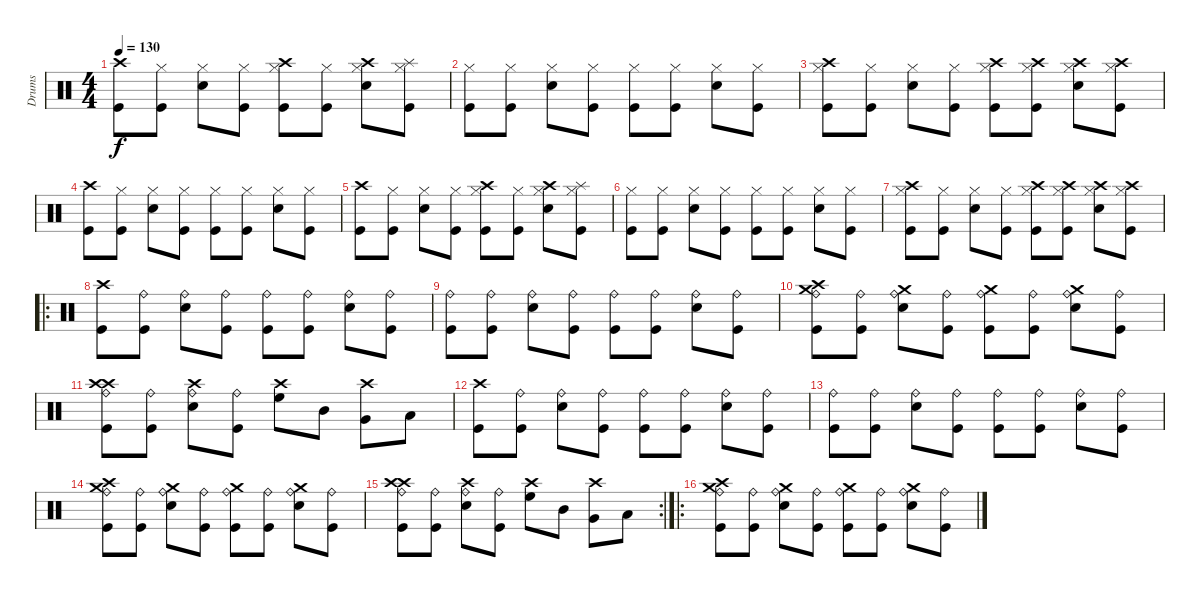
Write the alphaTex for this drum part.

\track ("Drums" "Drums") {instrument percussion}
\staff {score}
\articulation defaults
\ts (4 4)
\tempo 130
\clef neutral
\ks c
("Crash high (hit)" "Kick (hit)").8{dy f} ("Kick (hit)" "Hi-Hat (closed)").8 ("Electric Snare (hit)" "Hi-Hat (closed)").8 ("Kick (hit)" "Hi-Hat (closed)").8 ("Kick (hit)" "Hi-Hat (closed)" "Crash high (hit)").8 ("Kick (hit)" "Hi-Hat (closed)").8 ("Electric Snare (hit)" "Hi-Hat (closed)" "Crash high (hit)").8 ("Kick (hit)" "Hi-Hat (closed)" "Splash (hit)").8 |
("Kick (hit)" "Hi-Hat (closed)").8 ("Kick (hit)" "Hi-Hat (closed)").8 ("Electric Snare (hit)" "Hi-Hat (closed)").8 ("Kick (hit)" "Hi-Hat (closed)").8 ("Kick (hit)" "Hi-Hat (closed)").8 ("Kick (hit)" "Hi-Hat (closed)").8 ("Electric Snare (hit)" "Hi-Hat (closed)").8 ("Kick (hit)" "Hi-Hat (closed)").8 |
("Crash high (hit)" "Kick (hit)" "Hi-Hat (closed)").8 ("Kick (hit)" "Hi-Hat (closed)").8 ("Electric Snare (hit)" "Hi-Hat (closed)").8 ("Kick (hit)" "Hi-Hat (closed)").8 ("Kick (hit)" "Hi-Hat (closed)" "Crash high (hit)").8 ("Kick (hit)" "Hi-Hat (closed)" "Crash high (hit)").8 ("Electric Snare (hit)" "Hi-Hat (closed)" "Crash high (hit)").8 ("Kick (hit)" "Hi-Hat (closed)" "Crash high (hit)").8 |
("Crash high (hit)" "Kick (hit)").8 ("Kick (hit)" "Hi-Hat (closed)").8 ("Electric Snare (hit)" "Hi-Hat (closed)").8 ("Kick (hit)" "Hi-Hat (closed)").8 ("Kick (hit)" "Hi-Hat (closed)").8 ("Kick (hit)" "Hi-Hat (closed)").8 ("Electric Snare (hit)" "Hi-Hat (closed)").8 ("Kick (hit)" "Hi-Hat (closed)").8 |
("Crash high (hit)" "Kick (hit)").8 ("Kick (hit)" "Hi-Hat (closed)").8 ("Electric Snare (hit)" "Hi-Hat (closed)").8 ("Kick (hit)" "Hi-Hat (closed)").8 ("Kick (hit)" "Hi-Hat (closed)" "Crash high (hit)").8 ("Kick (hit)" "Hi-Hat (closed)").8 ("Electric Snare (hit)" "Hi-Hat (closed)" "Crash high (hit)").8 ("Kick (hit)" "Hi-Hat (closed)" "Splash (hit)").8 |
("Kick (hit)" "Hi-Hat (closed)").8 ("Kick (hit)" "Hi-Hat (closed)").8 ("Electric Snare (hit)" "Hi-Hat (closed)").8 ("Kick (hit)" "Hi-Hat (closed)").8 ("Kick (hit)" "Hi-Hat (closed)").8 ("Kick (hit)" "Hi-Hat (closed)").8 ("Electric Snare (hit)" "Hi-Hat (closed)").8 ("Kick (hit)" "Hi-Hat (closed)").8 |
("Crash high (hit)" "Kick (hit)" "Hi-Hat (closed)").8 ("Kick (hit)" "Hi-Hat (closed)").8 ("Electric Snare (hit)" "Hi-Hat (closed)").8 ("Kick (hit)" "Hi-Hat (closed)").8 ("Kick (hit)" "Hi-Hat (closed)" "Crash high (hit)").8 ("Kick (hit)" "Hi-Hat (closed)" "Crash high (hit)").8 ("Electric Snare (hit)" "Hi-Hat (closed)" "Crash high (hit)").8 ("Kick (hit)" "Hi-Hat (closed)" "Crash high (hit)").8 |
\ro
("Crash high (hit)" "Kick (hit)").8 ("Kick (hit)" "Ride (bell)").8 ("Electric Snare (hit)" "Ride (bell)").8 ("Kick (hit)" "Ride (bell)").8 ("Kick (hit)" "Ride (bell)").8 ("Kick (hit)" "Ride (bell)").8 ("Electric Snare (hit)" "Ride (bell)").8 ("Kick (hit)" "Ride (bell)").8 |
("Kick (hit)" "Ride (bell)").8 ("Kick (hit)" "Ride (bell)").8 ("Electric Snare (hit)" "Ride (bell)").8 ("Kick (hit)" "Ride (bell)").8 ("Kick (hit)" "Ride (bell)").8 ("Kick (hit)" "Ride (bell)").8 ("Electric Snare (hit)" "Ride (bell)").8 ("Kick (hit)" "Ride (bell)").8 |
("Crash high (hit)" "Kick (hit)" "Ride (bell)" "Crash medium (hit)").8 ("Kick (hit)" "Ride (bell)").8 ("Electric Snare (hit)" "Ride (bell)" "Crash medium (hit)").8 ("Kick (hit)" "Ride (bell)").8 ("Kick (hit)" "Ride (bell)" "Crash medium (hit)").8 ("Kick (hit)" "Ride (bell)").8 ("Electric Snare (hit)" "Ride (bell)" "Crash medium (hit)").8 ("Kick (hit)" "Ride (bell)").8 |
("Crash high (hit)" "Kick (hit)" "Ride (bell)" "Crash high (hit)").8 ("Kick (hit)" "Ride (bell)").8 ("Electric Snare (hit)" "Ride (bell)" "Crash high (hit)").8 ("Kick (hit)" "Ride (bell)").8 ("High Floor Tom (hit)" "Crash high (hit)").8 "Mid Tom (hit)".8 ("Very Low Tom (hit)" "Crash high (hit)").8 "Low Floor Tom (hit)".8 |
("Crash high (hit)" "Kick (hit)").8 ("Kick (hit)" "Ride (bell)").8 ("Electric Snare (hit)" "Ride (bell)").8 ("Kick (hit)" "Ride (bell)").8 ("Kick (hit)" "Ride (bell)").8 ("Kick (hit)" "Ride (bell)").8 ("Electric Snare (hit)" "Ride (bell)").8 ("Kick (hit)" "Ride (bell)").8 |
("Kick (hit)" "Ride (bell)").8 ("Kick (hit)" "Ride (bell)").8 ("Electric Snare (hit)" "Ride (bell)").8 ("Kick (hit)" "Ride (bell)").8 ("Kick (hit)" "Ride (bell)").8 ("Kick (hit)" "Ride (bell)").8 ("Electric Snare (hit)" "Ride (bell)").8 ("Kick (hit)" "Ride (bell)").8 |
("Crash high (hit)" "Kick (hit)" "Ride (bell)" "Crash medium (hit)").8 ("Kick (hit)" "Ride (bell)").8 ("Electric Snare (hit)" "Ride (bell)" "Crash medium (hit)").8 ("Kick (hit)" "Ride (bell)").8 ("Kick (hit)" "Ride (bell)" "Crash medium (hit)").8 ("Kick (hit)" "Ride (bell)").8 ("Electric Snare (hit)" "Ride (bell)" "Crash medium (hit)").8 ("Kick (hit)" "Ride (bell)").8 |
\rc 2
("Crash high (hit)" "Kick (hit)" "Ride (bell)" "Crash high (hit)").8 ("Kick (hit)" "Ride (bell)").8 ("Electric Snare (hit)" "Ride (bell)" "Crash high (hit)").8 ("Kick (hit)" "Ride (bell)").8 ("High Floor Tom (hit)" "Crash high (hit)").8 "Mid Tom (hit)".8 ("Very Low Tom (hit)" "Crash high (hit)").8 "Low Floor Tom (hit)".8 |
\ro
("Crash high (hit)" "Kick (hit)" "Ride (bell)" "Crash medium (hit)").8 ("Kick (hit)" "Ride (bell)").8 ("Electric Snare (hit)" "Ride (bell)" "Crash medium (hit)").8 ("Kick (hit)" "Ride (bell)").8 ("Kick (hit)" "Ride (bell)" "Crash medium (hit)").8 ("Kick (hit)" "Ride (bell)").8 ("Electric Snare (hit)" "Ride (bell)" "Crash medium (hit)").8 ("Kick (hit)" "Ride (bell)").8
